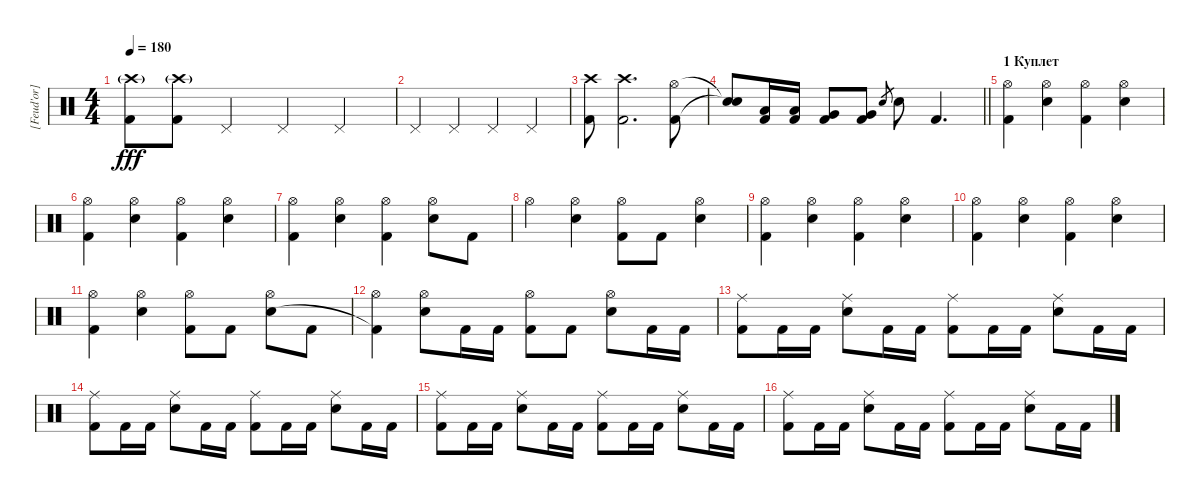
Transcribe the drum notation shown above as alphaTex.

\track ("[Feud'or] - Drums" "[Feud'or] ") {instrument percussion}
\staff {score}
\articulation defaults
\ts (4 4)
\tempo 180
\clef neutral
\ks c
("Crash high (hit)"{g} "Kick (hit) 2").8{dy fff} ("Crash high (hit)"{g} "Kick (hit) 2").8 "Pedal Hi-Hat (hit)".4 "Pedal Hi-Hat (hit)".4 "Pedal Hi-Hat (hit)".4 |
"Pedal Hi-Hat (hit)".4 "Pedal Hi-Hat (hit)".4 "Pedal Hi-Hat (hit)".4 "Pedal Hi-Hat (hit)".4 |
("Crash high (hit)" "Kick (hit) 2").8 ("Crash high (hit)" "Kick (hit) 2").2{d} ("Hi-Hat (open)" "Kick (hit) 2").8 |
\barLineRight lightlight
("Snare (hit)"{t} "Snare (hit)"{t}).8 ("Low Tom (hit)" "Kick (hit) 2").16 ("Low Tom (hit)" "Kick (hit) 2").16 ("Very Low Tom (hit)" "Kick (hit) 2").8 ("Very Low Tom (hit)" "Kick (hit) 2").8 "Snare (hit) 2".8{gr} "Snare (hit) 2".8 "Kick (hit) 2".4{d} |
\section ("" "1 Куплет")
("Hi-Hat (open)" "Kick (hit) 2").4 ("Hi-Hat (open)" "Snare (hit) 2").4 ("Hi-Hat (open)" "Kick (hit) 2").4 ("Hi-Hat (open)" "Snare (hit) 2").4 |
("Hi-Hat (open)" "Kick (hit) 2").4 ("Hi-Hat (open)" "Snare (hit) 2").4 ("Hi-Hat (open)" "Kick (hit) 2").4 ("Hi-Hat (open)" "Snare (hit) 2").4 |
("Hi-Hat (open)" "Kick (hit) 2").4 ("Hi-Hat (open)" "Snare (hit) 2").4 ("Hi-Hat (open)" "Kick (hit) 2").4 ("Hi-Hat (open)" "Snare (hit) 2").8 "Kick (hit) 2".8 |
"Hi-Hat (open)".4 ("Hi-Hat (open)" "Snare (hit) 2").4 ("Hi-Hat (open)" "Kick (hit) 2").8 "Kick (hit) 2".8 ("Hi-Hat (open)" "Snare (hit) 2").4 |
("Hi-Hat (open)" "Kick (hit) 2").4 ("Hi-Hat (open)" "Snare (hit) 2").4 ("Hi-Hat (open)" "Kick (hit) 2").4 ("Hi-Hat (open)" "Snare (hit) 2").4 |
("Hi-Hat (open)" "Kick (hit) 2").4 ("Hi-Hat (open)" "Snare (hit) 2").4 ("Hi-Hat (open)" "Kick (hit) 2").4 ("Hi-Hat (open)" "Snare (hit) 2").4 |
("Hi-Hat (open)" "Kick (hit) 2").4 ("Hi-Hat (open)" "Snare (hit) 2").4 ("Hi-Hat (open)" "Kick (hit) 2").8 "Kick (hit) 2".8 ("Hi-Hat (open)" "Snare (hit) 2").8 "Kick (hit) 2".8 |
("Hi-Hat (open)" "Kick (hit) 2"{t}).4 ("Hi-Hat (open)" "Snare (hit) 2").8 "Kick (hit) 2".16 "Kick (hit) 2".16 ("Hi-Hat (open)" "Kick (hit) 2").8 "Kick (hit) 2".8 ("Hi-Hat (open)" "Snare (hit) 2").8 "Kick (hit) 2".16 "Kick (hit) 2".16 |
("Ride (middle)" "Kick (hit) 2").8 "Kick (hit) 2".16 "Kick (hit) 2".16 ("Ride (middle)" "Snare (hit) 2").8 "Kick (hit) 2".16 "Kick (hit) 2".16 ("Ride (middle)" "Kick (hit) 2").8 "Kick (hit) 2".16 "Kick (hit) 2".16 ("Ride (middle)" "Snare (hit) 2").8 "Kick (hit) 2".16 "Kick (hit) 2".16 |
("Ride (middle)" "Kick (hit) 2").8 "Kick (hit) 2".16 "Kick (hit) 2".16 ("Ride (middle)" "Snare (hit) 2").8 "Kick (hit) 2".16 "Kick (hit) 2".16 ("Ride (middle)" "Kick (hit) 2").8 "Kick (hit) 2".16 "Kick (hit) 2".16 ("Ride (middle)" "Snare (hit) 2").8 "Kick (hit) 2".16 "Kick (hit) 2".16 |
("Ride (middle)" "Kick (hit) 2").8 "Kick (hit) 2".16 "Kick (hit) 2".16 ("Ride (middle)" "Snare (hit) 2").8 "Kick (hit) 2".16 "Kick (hit) 2".16 ("Ride (middle)" "Kick (hit) 2").8 "Kick (hit) 2".16 "Kick (hit) 2".16 ("Ride (middle)" "Snare (hit) 2").8 "Kick (hit) 2".16 "Kick (hit) 2".16 |
("Ride (middle)" "Kick (hit) 2").8 "Kick (hit) 2".16 "Kick (hit) 2".16 ("Ride (middle)" "Snare (hit) 2").8 "Kick (hit) 2".16 "Kick (hit) 2".16 ("Ride (middle)" "Kick (hit) 2").8 "Kick (hit) 2".16 "Kick (hit) 2".16 ("Ride (middle)" "Snare (hit) 2").8 "Kick (hit) 2".16 "Kick (hit) 2".16
